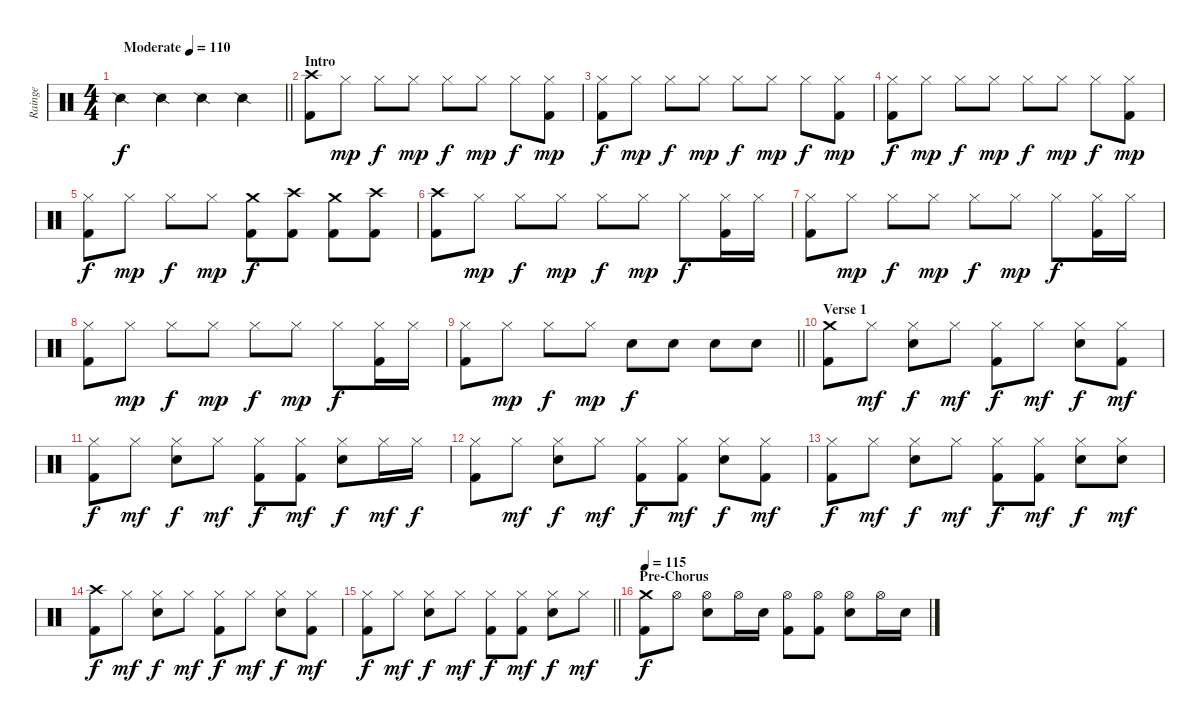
\track ("Rainge" "Rainge") {instrument percussion}
\staff {score}
\articulation defaults
\ts (4 4)
\tempo (110 "Moderate")
\clef neutral
\barLineRight lightlight
\ks c "Snare (side stick) 2".4{dy f} "Snare (side stick) 2".4 "Snare (side stick) 2".4 "Snare (side stick) 2".4
|
\section ("" "Intro")
("Crash high (hit)" "Kick (hit) 2").8 "Hi-Hat (closed)".8{dy mp} "Hi-Hat (closed)".8{dy f} "Hi-Hat (closed)".8{dy mp} "Hi-Hat (closed)".8{dy f} "Hi-Hat (closed)".8{dy mp} "Hi-Hat (closed)".8{dy f} ("Hi-Hat (closed)" "Kick (hit) 2").8{dy mp} |
("Hi-Hat (closed)" "Kick (hit) 2").8{dy f} "Hi-Hat (closed)".8{dy mp} "Hi-Hat (closed)".8{dy f} "Hi-Hat (closed)".8{dy mp} "Hi-Hat (closed)".8{dy f} "Hi-Hat (closed)".8{dy mp} "Hi-Hat (closed)".8{dy f} ("Hi-Hat (closed)" "Kick (hit) 2").8{dy mp} |
("Hi-Hat (closed)" "Kick (hit) 2").8{dy f} "Hi-Hat (closed)".8{dy mp} "Hi-Hat (closed)".8{dy f} "Hi-Hat (closed)".8{dy mp} "Hi-Hat (closed)".8{dy f} "Hi-Hat (closed)".8{dy mp} "Hi-Hat (closed)".8{dy f} ("Hi-Hat (closed)" "Kick (hit) 2").8{dy mp} |
("Hi-Hat (closed)" "Kick (hit) 2").8{dy f} "Hi-Hat (closed)".8{dy mp} "Hi-Hat (closed)".8{dy f} "Hi-Hat (closed)".8{dy mp} ("Crash medium (hit)" "Kick (hit) 2").8{dy f} ("Crash high (hit)" "Kick (hit) 2").8 ("Crash medium (hit)" "Kick (hit) 2").8 ("Crash high (hit)" "Kick (hit) 2").8 |
("Crash high (hit)" "Kick (hit) 2").8 "Hi-Hat (closed)".8{dy mp} "Hi-Hat (closed)".8{dy f} "Hi-Hat (closed)".8{dy mp} "Hi-Hat (closed)".8{dy f} "Hi-Hat (closed)".8{dy mp} "Hi-Hat (closed)".8{dy f} ("Hi-Hat (closed)" "Kick (hit) 2").16 "Hi-Hat (closed)".16 |
("Hi-Hat (closed)" "Kick (hit) 2").8 "Hi-Hat (closed)".8{dy mp} "Hi-Hat (closed)".8{dy f} "Hi-Hat (closed)".8{dy mp} "Hi-Hat (closed)".8{dy f} "Hi-Hat (closed)".8{dy mp} "Hi-Hat (closed)".8{dy f} ("Hi-Hat (closed)" "Kick (hit) 2").16 "Hi-Hat (closed)".16 |
("Hi-Hat (closed)" "Kick (hit) 2").8 "Hi-Hat (closed)".8{dy mp} "Hi-Hat (closed)".8{dy f} "Hi-Hat (closed)".8{dy mp} "Hi-Hat (closed)".8{dy f} "Hi-Hat (closed)".8{dy mp} "Hi-Hat (closed)".8{dy f} ("Hi-Hat (closed)" "Kick (hit) 2").16 "Hi-Hat (closed)".16 |
\barLineRight lightlight
("Hi-Hat (closed)" "Kick (hit) 2").8 "Hi-Hat (closed)".8{dy mp} "Hi-Hat (closed)".8{dy f} "Hi-Hat (closed)".8{dy mp} "Electric Snare (hit)".8{dy f} "Electric Snare (hit)".8 "Electric Snare (hit)".8 "Electric Snare (hit)".8 |
\section ("" "Verse 1")
("Crash medium (hit)" "Kick (hit) 2").8 "Hi-Hat (closed)".8{dy mf} ("Hi-Hat (closed)" "Electric Snare (hit)").8{dy f} "Hi-Hat (closed)".8{dy mf} ("Hi-Hat (closed)" "Kick (hit) 2").8{dy f} "Hi-Hat (closed)".8{dy mf} ("Hi-Hat (closed)" "Electric Snare (hit)").8{dy f} ("Hi-Hat (closed)" "Kick (hit) 2").8{dy mf} |
("Hi-Hat (closed)" "Kick (hit) 2").8{dy f} "Hi-Hat (closed)".8{dy mf} ("Hi-Hat (closed)" "Electric Snare (hit)").8{dy f} "Hi-Hat (closed)".8{dy mf} ("Hi-Hat (closed)" "Kick (hit) 2").8{dy f} ("Hi-Hat (closed)" "Kick (hit) 2").8{dy mf} ("Hi-Hat (closed)" "Electric Snare (hit)").8{dy f} "Hi-Hat (closed)".16{dy mf} "Hi-Hat (closed)".16{dy f} |
("Hi-Hat (closed)" "Kick (hit) 2").8 "Hi-Hat (closed)".8{dy mf} ("Hi-Hat (closed)" "Electric Snare (hit)").8{dy f} "Hi-Hat (closed)".8{dy mf} ("Hi-Hat (closed)" "Kick (hit) 2").8{dy f} ("Hi-Hat (closed)" "Kick (hit) 2").8{dy mf} ("Hi-Hat (closed)" "Electric Snare (hit)").8{dy f} ("Hi-Hat (closed)" "Kick (hit) 2").8{dy mf} |
("Hi-Hat (closed)" "Kick (hit) 2").8{dy f} "Hi-Hat (closed)".8{dy mf} ("Hi-Hat (closed)" "Electric Snare (hit)").8{dy f} "Hi-Hat (closed)".8{dy mf} ("Hi-Hat (closed)" "Kick (hit) 2").8{dy f} ("Hi-Hat (closed)" "Kick (hit) 2").8{dy mf} ("Hi-Hat (closed)" "Electric Snare (hit)").8{dy f} ("Hi-Hat (closed)" "Electric Snare (hit)").8{dy mf} |
("Crash high (hit)" "Kick (hit) 2").8{dy f} "Hi-Hat (closed)".8{dy mf} ("Hi-Hat (closed)" "Electric Snare (hit)").8{dy f} "Hi-Hat (closed)".8{dy mf} ("Hi-Hat (closed)" "Kick (hit) 2").8{dy f} "Hi-Hat (closed)".8{dy mf} ("Hi-Hat (closed)" "Electric Snare (hit)").8{dy f} ("Hi-Hat (closed)" "Kick (hit) 2").8{dy mf} |
\barLineRight lightlight
("Hi-Hat (closed)" "Kick (hit) 2").8{dy f} "Hi-Hat (closed)".8{dy mf} ("Hi-Hat (closed)" "Electric Snare (hit)").8{dy f} "Hi-Hat (closed)".8{dy mf} ("Hi-Hat (closed)" "Kick (hit) 2").8{dy f} ("Hi-Hat (closed)" "Kick (hit) 2").8{dy mf} ("Hi-Hat (closed)" "Electric Snare (hit)").8{dy f} "Hi-Hat (closed)".8{dy mf} |
\section ("" "Pre-Chorus")
\tempo 115
("Crash medium (hit)" "Kick (hit) 2").8{dy f} "Hi-Hat (open)".8 ("Hi-Hat (open)" "Electric Snare (hit)").8 "Hi-Hat (open)".16 "Electric Snare (hit)".16 ("Hi-Hat (open)" "Kick (hit) 2").8 ("Hi-Hat (open)" "Kick (hit) 2").8 ("Hi-Hat (open)" "Electric Snare (hit)").8 "Hi-Hat (open)".16 "Electric Snare (hit)".16
